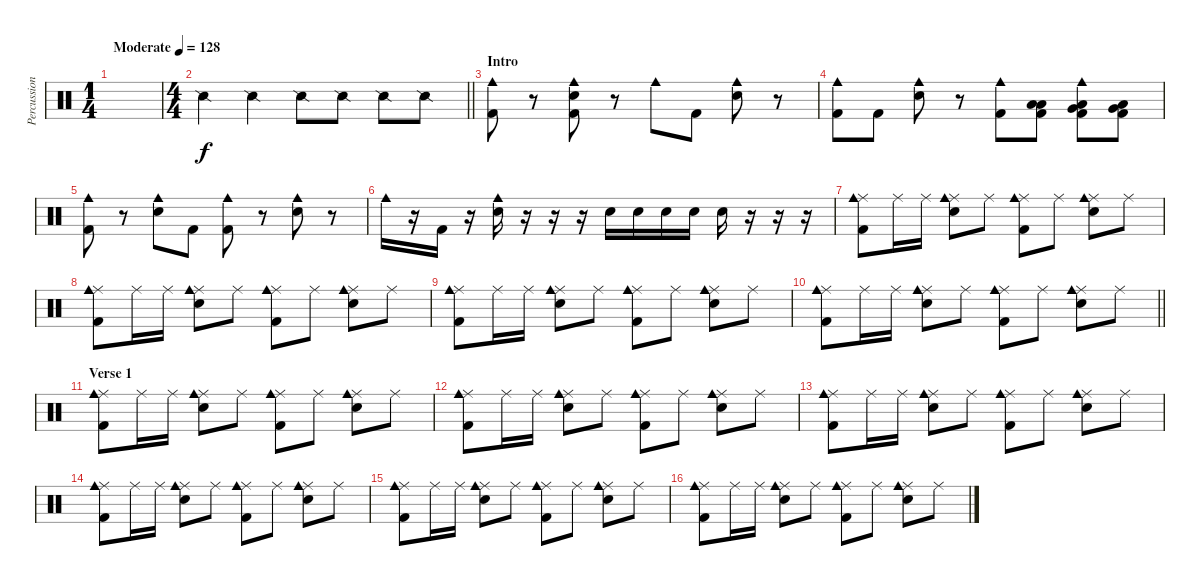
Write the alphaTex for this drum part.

\track ("Percussion" "Percussion") {instrument percussion}
\staff {score}
\articulation defaults
\ts (1 4)
\tempo (128 "Moderate")
\clef neutral
\ks c
|
\ts (4 4)
\barLineRight lightlight "Snare (side stick) 2".4 "Snare (side stick) 2".4 "Snare (side stick) 2".8 "Snare (side stick) 2".8 "Snare (side stick) 2".8 "Snare (side stick) 2".8
|
\section ("" "Intro")
("Cowbell medium (hit)" "Kick (hit) 2").8 r.8 ("Cowbell medium (hit)" "Snare (hit) 2" "Kick (hit) 2").8 r.8 "Cowbell medium (hit)".8 "Kick (hit) 2".8 ("Cowbell medium (hit)" "Snare (hit) 2").8 r.8 |
("Cowbell medium (hit)" "Kick (hit) 2").8 "Kick (hit) 2".8 ("Cowbell medium (hit)" "Snare (hit) 2").8 r.8 ("Cowbell medium (hit)" "Kick (hit) 2").8 ("Low Tom (hit)" "Low Tom (hit)" "Kick (hit) 2").8 ("Cowbell medium (hit)" "Low Tom (hit)" "Very Low Tom (hit)" "Kick (hit) 2").8 ("Very Low Tom (hit)" "Low Floor Tom (hit)" "Kick (hit) 2").8 |
("Cowbell medium (hit)" "Kick (hit) 2").8 r.8 ("Cowbell medium (hit)" "Snare (hit) 2").8 "Kick (hit) 2".8 ("Cowbell medium (hit)" "Kick (hit) 2").8 r.8 ("Cowbell medium (hit)" "Snare (hit) 2").8 r.8 |
"Cowbell medium (hit)".16 r.16 "Kick (hit) 2".16 r.16 ("Cowbell medium (hit)" "Snare (hit) 2").16 r.16 r.16 r.16 "Snare (hit) 2".16 "Snare (hit) 2".16 "Snare (hit) 2".16 "Snare (hit) 2".16 "Snare (hit) 2".16 r.16 r.16 r.16 |
("Ride (middle)" "Cowbell medium (hit)" "Kick (hit) 2").8 "Ride (middle)".16 "Ride (middle)".16 ("Ride (middle)" "Cowbell medium (hit)" "Snare (hit) 2").8 "Ride (middle)".8 ("Ride (middle)" "Cowbell medium (hit)" "Kick (hit) 2").8 "Ride (middle)".8 ("Ride (middle)" "Cowbell medium (hit)" "Snare (hit) 2").8 "Ride (middle)".8 |
("Ride (middle)" "Cowbell medium (hit)" "Kick (hit) 2").8 "Ride (middle)".16 "Ride (middle)".16 ("Ride (middle)" "Cowbell medium (hit)" "Snare (hit) 2").8 "Ride (middle)".8 ("Ride (middle)" "Cowbell medium (hit)" "Kick (hit) 2").8 "Ride (middle)".8 ("Ride (middle)" "Cowbell medium (hit)" "Snare (hit) 2").8 "Ride (middle)".8 |
("Ride (middle)" "Cowbell medium (hit)" "Kick (hit) 2").8 "Ride (middle)".16 "Ride (middle)".16 ("Ride (middle)" "Cowbell medium (hit)" "Snare (hit) 2").8 "Ride (middle)".8 ("Ride (middle)" "Cowbell medium (hit)" "Kick (hit) 2").8 "Ride (middle)".8 ("Ride (middle)" "Cowbell medium (hit)" "Snare (hit) 2").8 "Ride (middle)".8 |
\barLineRight lightlight
("Ride (middle)" "Cowbell medium (hit)" "Kick (hit) 2").8 "Ride (middle)".16 "Ride (middle)".16 ("Ride (middle)" "Cowbell medium (hit)" "Snare (hit) 2").8 "Ride (middle)".8 ("Ride (middle)" "Cowbell medium (hit)" "Kick (hit) 2").8 "Ride (middle)".8 ("Ride (middle)" "Cowbell medium (hit)" "Snare (hit) 2").8 "Ride (middle)".8 |
\section ("" "Verse 1")
("Ride (middle)" "Cowbell medium (hit)" "Kick (hit) 2").8 "Ride (middle)".16 "Ride (middle)".16 ("Ride (middle)" "Cowbell medium (hit)" "Snare (hit) 2").8 "Ride (middle)".8 ("Ride (middle)" "Cowbell medium (hit)" "Kick (hit) 2").8 "Ride (middle)".8 ("Ride (middle)" "Cowbell medium (hit)" "Snare (hit) 2").8 "Ride (middle)".8 |
("Ride (middle)" "Cowbell medium (hit)" "Kick (hit) 2").8 "Ride (middle)".16 "Ride (middle)".16 ("Ride (middle)" "Cowbell medium (hit)" "Snare (hit) 2").8 "Ride (middle)".8 ("Ride (middle)" "Cowbell medium (hit)" "Kick (hit) 2").8 "Ride (middle)".8 ("Ride (middle)" "Cowbell medium (hit)" "Snare (hit) 2").8 "Ride (middle)".8 |
("Ride (middle)" "Cowbell medium (hit)" "Kick (hit) 2").8 "Ride (middle)".16 "Ride (middle)".16 ("Ride (middle)" "Cowbell medium (hit)" "Snare (hit) 2").8 "Ride (middle)".8 ("Ride (middle)" "Cowbell medium (hit)" "Kick (hit) 2").8 "Ride (middle)".8 ("Ride (middle)" "Cowbell medium (hit)" "Snare (hit) 2").8 "Ride (middle)".8 |
("Ride (middle)" "Cowbell medium (hit)" "Kick (hit) 2").8 "Ride (middle)".16 "Ride (middle)".16 ("Ride (middle)" "Cowbell medium (hit)" "Snare (hit) 2").8 "Ride (middle)".8 ("Ride (middle)" "Cowbell medium (hit)" "Kick (hit) 2").8 "Ride (middle)".8 ("Ride (middle)" "Cowbell medium (hit)" "Snare (hit) 2").8 "Ride (middle)".8 |
("Ride (middle)" "Cowbell medium (hit)" "Kick (hit) 2").8 "Ride (middle)".16 "Ride (middle)".16 ("Ride (middle)" "Cowbell medium (hit)" "Snare (hit) 2").8 "Ride (middle)".8 ("Ride (middle)" "Cowbell medium (hit)" "Kick (hit) 2").8 "Ride (middle)".8 ("Ride (middle)" "Cowbell medium (hit)" "Snare (hit) 2").8 "Ride (middle)".8 |
("Ride (middle)" "Cowbell medium (hit)" "Kick (hit) 2").8 "Ride (middle)".16 "Ride (middle)".16 ("Ride (middle)" "Cowbell medium (hit)" "Snare (hit) 2").8 "Ride (middle)".8 ("Ride (middle)" "Cowbell medium (hit)" "Kick (hit) 2").8 "Ride (middle)".8 ("Ride (middle)" "Cowbell medium (hit)" "Snare (hit) 2").8 "Ride (middle)".8
